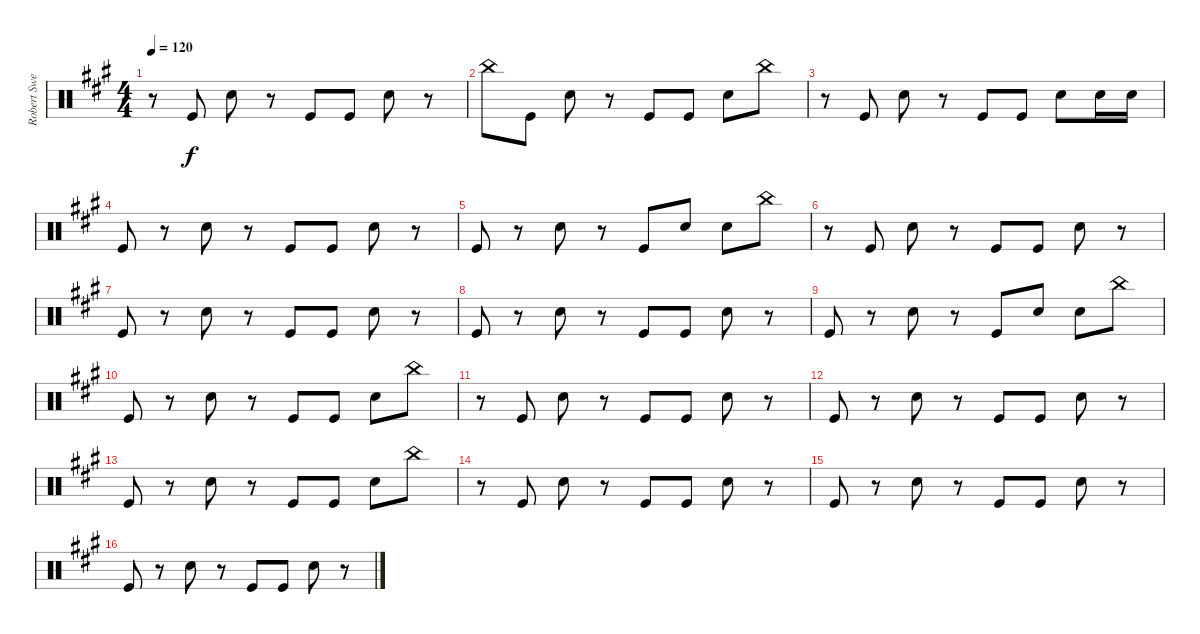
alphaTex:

\track ("Robert Sweet" "Robert Swe") {instrument percussion}
\staff {score}
\articulation defaults
\ts (4 4)
\tempo 120
\clef neutral
\ks a
r.8{dy f} "Kick (hit)".8 "Snare (hit) 2".8 r.8 "Kick (hit)".8 "Kick (hit)".8 "Snare (hit) 2".8 r.8 |
"China (hit)".8 "Kick (hit)".8 "Snare (hit) 2".8 r.8 "Kick (hit)".8 "Kick (hit)".8 "Snare (hit) 2".8 "China (hit)".8 |
r.8 "Kick (hit)".8 "Snare (hit) 2".8 r.8 "Kick (hit)".8 "Kick (hit)".8 "Snare (hit) 2".8 "Snare (hit) 2".16 "Snare (hit) 2".16 |
"Kick (hit)".8 r.8 "Snare (hit) 2".8 r.8 "Kick (hit)".8 "Kick (hit)".8 "Snare (hit) 2".8 r.8 |
"Kick (hit)".8 r.8 "Snare (hit) 2".8 r.8 "Kick (hit)".8 "Snare (hit) 2".8 "Snare (hit) 2".8 "China (hit)".8 |
r.8 "Kick (hit)".8 "Snare (hit) 2".8 r.8 "Kick (hit)".8 "Kick (hit)".8 "Snare (hit) 2".8 r.8 |
"Kick (hit)".8 r.8 "Snare (hit) 2".8 r.8 "Kick (hit)".8 "Kick (hit)".8 "Snare (hit) 2".8 r.8 |
"Kick (hit)".8 r.8 "Snare (hit) 2".8 r.8 "Kick (hit)".8 "Kick (hit)".8 "Snare (hit) 2".8 r.8 |
"Kick (hit)".8 r.8 "Snare (hit) 2".8 r.8 "Kick (hit)".8 "Snare (hit) 2".8 "Snare (hit) 2".8 "China (hit)".8 |
"Kick (hit)".8 r.8 "Snare (hit) 2".8 r.8 "Kick (hit)".8 "Kick (hit)".8 "Snare (hit) 2".8 "China (hit)".8 |
r.8 "Kick (hit)".8 "Snare (hit) 2".8 r.8 "Kick (hit)".8 "Kick (hit)".8 "Snare (hit) 2".8 r.8 |
"Kick (hit)".8 r.8 "Snare (hit) 2".8 r.8 "Kick (hit)".8 "Kick (hit)".8 "Snare (hit) 2".8 r.8 |
"Kick (hit)".8 r.8 "Snare (hit) 2".8 r.8 "Kick (hit)".8 "Kick (hit)".8 "Snare (hit) 2".8 "China (hit)".8 |
r.8 "Kick (hit)".8 "Snare (hit) 2".8 r.8 "Kick (hit)".8 "Kick (hit)".8 "Snare (hit) 2".8 r.8 |
"Kick (hit)".8 r.8 "Snare (hit) 2".8 r.8 "Kick (hit)".8 "Kick (hit)".8 "Snare (hit) 2".8 r.8 |
"Kick (hit)".8 r.8 "Snare (hit) 2".8 r.8 "Kick (hit)".8 "Kick (hit)".8 "Snare (hit) 2".8 r.8
